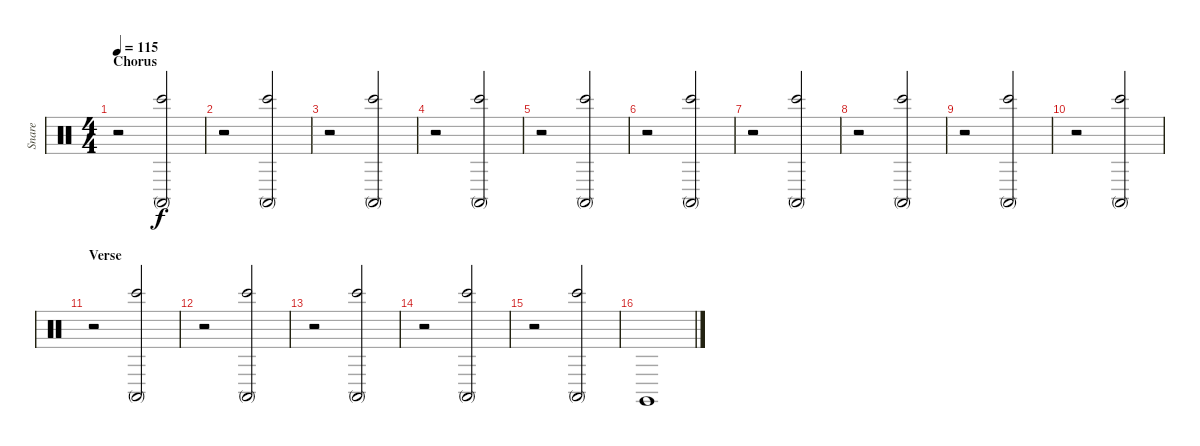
\track ("Snare" "Snare") {instrument percussion}
\staff {score}
\articulation defaults
\ts (4 4)
\section ("" "Chorus")
\tempo 115
\clef neutral
\ks c
r.2{dy f} ("Conga high (mute)" "Bongo High (hit)").2 |
r.2 ("Conga high (mute)" "Bongo High (hit)").2 |
r.2 ("Conga high (mute)" "Bongo High (hit)").2 |
r.2 ("Conga high (mute)" "Bongo High (hit)").2 |
r.2 ("Conga high (mute)" "Bongo High (hit)").2 |
r.2 ("Conga high (mute)" "Bongo High (hit)").2 |
r.2 ("Conga high (mute)" "Bongo High (hit)").2 |
r.2 ("Conga high (mute)" "Bongo High (hit)").2 |
r.2 ("Conga high (mute)" "Bongo High (hit)").2 |
r.2 ("Conga high (mute)" "Bongo High (hit)").2 |
\section ("" "Verse")
r.2 ("Conga high (mute)" "Bongo High (hit)").2 |
r.2 ("Conga high (mute)" "Bongo High (hit)").2 |
r.2 ("Conga high (mute)" "Bongo High (hit)").2 |
r.2 ("Conga high (mute)" "Bongo High (hit)").2 |
r.2 ("Conga high (mute)" "Bongo High (hit)").2 |
"Claves (hit)".1
